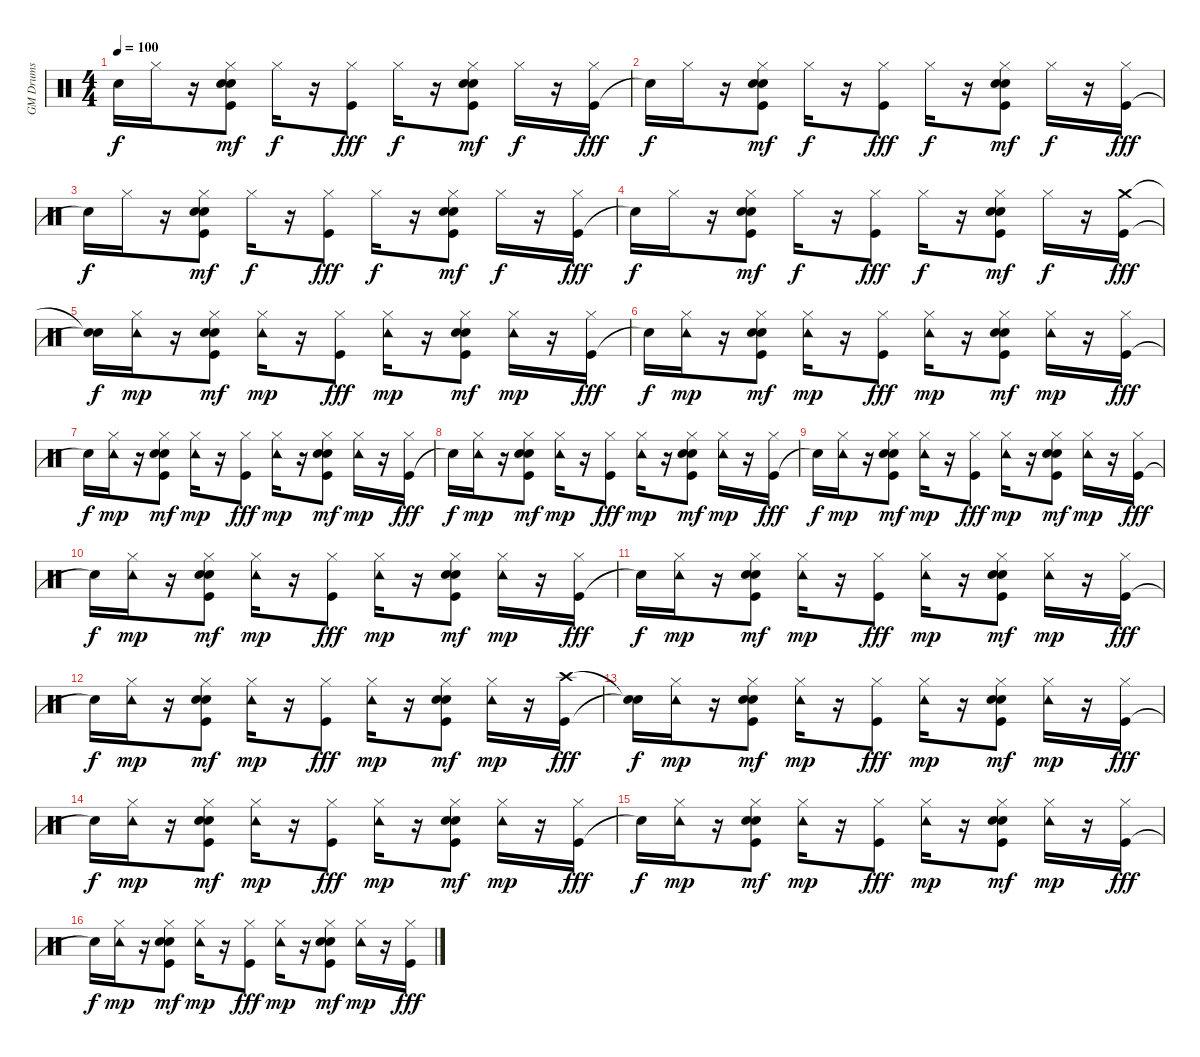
\track ("GM Drums" "GM Drums") {instrument percussion}
\staff {score}
\articulation defaults
\ts (4 4)
\tempo 100
\clef neutral
\ks c "Snare (hit)"{t}.16{dy f} "Hi-Hat (closed)".16
r.16 ("Kick (hit)" "Snare (hit) 2" "Hand Clap (hit)" "Hi-Hat (closed)").8{dy mf} "Hi-Hat (closed)".16{dy f} r.16 ("Kick (hit)" "Hi-Hat (closed)").8{dy fff} "Hi-Hat (closed)".16{dy f} r.16 ("Kick (hit)" "Snare (hit) 2" "Hand Clap (hit)" "Hi-Hat (closed)").8{dy mf} "Hi-Hat (closed)".16{dy f} r.16 ("Kick (hit)" "Hi-Hat (closed)").16{dy fff} |
"Snare (hit)"{t}.16{dy f} "Hi-Hat (closed)".16 r.16 ("Kick (hit)" "Snare (hit) 2" "Hand Clap (hit)" "Hi-Hat (closed)").8{dy mf} "Hi-Hat (closed)".16{dy f} r.16 ("Kick (hit)" "Hi-Hat (closed)").8{dy fff} "Hi-Hat (closed)".16{dy f} r.16 ("Kick (hit)" "Snare (hit) 2" "Hand Clap (hit)" "Hi-Hat (closed)").8{dy mf} "Hi-Hat (closed)".16{dy f} r.16 ("Kick (hit)" "Hi-Hat (closed)").16{dy fff} |
"Snare (hit)"{t}.16{dy f} "Hi-Hat (closed)".16 r.16 ("Kick (hit)" "Snare (hit) 2" "Hand Clap (hit)" "Hi-Hat (closed)").8{dy mf} "Hi-Hat (closed)".16{dy f} r.16 ("Kick (hit)" "Hi-Hat (closed)").8{dy fff} "Hi-Hat (closed)".16{dy f} r.16 ("Kick (hit)" "Snare (hit) 2" "Hand Clap (hit)" "Hi-Hat (closed)").8{dy mf} "Hi-Hat (closed)".16{dy f} r.16 ("Kick (hit)" "Hi-Hat (closed)").16{dy fff} |
"Snare (hit)"{t}.16{dy f} "Hi-Hat (closed)".16 r.16 ("Kick (hit)" "Snare (hit) 2" "Hand Clap (hit)" "Hi-Hat (closed)").8{dy mf} "Hi-Hat (closed)".16{dy f} r.16 ("Kick (hit)" "Hi-Hat (closed)").8{dy fff} "Hi-Hat (closed)".16{dy f} r.16 ("Kick (hit)" "Snare (hit) 2" "Hand Clap (hit)" "Hi-Hat (closed)").8{dy mf} "Hi-Hat (closed)".16{dy f} r.16 ("Kick (hit)" "Crash medium (hit)").16{dy fff} |
("Snare (hit)"{t} "Snare (hit)"{t}).16{dy f} ("Hi-Hat (closed)" "Tambourine (hit)").16{dy mp} r.16 ("Kick (hit)" "Snare (hit) 2" "Hand Clap (hit)" "Hi-Hat (closed)").8{dy mf} ("Hi-Hat (closed)" "Tambourine (hit)").16{dy mp} r.16 ("Kick (hit)" "Hi-Hat (closed)").8{dy fff} ("Hi-Hat (closed)" "Tambourine (hit)").16{dy mp} r.16 ("Kick (hit)" "Snare (hit) 2" "Hand Clap (hit)" "Hi-Hat (closed)").8{dy mf} ("Hi-Hat (closed)" "Tambourine (hit)").16{dy mp} r.16 ("Kick (hit)" "Hi-Hat (closed)").16{dy fff} |
"Snare (hit)"{t}.16{dy f} ("Hi-Hat (closed)" "Tambourine (hit)").16{dy mp} r.16 ("Kick (hit)" "Snare (hit) 2" "Hand Clap (hit)" "Hi-Hat (closed)").8{dy mf} ("Hi-Hat (closed)" "Tambourine (hit)").16{dy mp} r.16 ("Kick (hit)" "Hi-Hat (closed)").8{dy fff} ("Hi-Hat (closed)" "Tambourine (hit)").16{dy mp} r.16 ("Kick (hit)" "Snare (hit) 2" "Hand Clap (hit)" "Hi-Hat (closed)").8{dy mf} ("Hi-Hat (closed)" "Tambourine (hit)").16{dy mp} r.16 ("Kick (hit)" "Hi-Hat (closed)").16{dy fff} |
"Snare (hit)"{t}.16{dy f} ("Hi-Hat (closed)" "Tambourine (hit)").16{dy mp} r.16 ("Kick (hit)" "Snare (hit) 2" "Hand Clap (hit)" "Hi-Hat (closed)").8{dy mf} ("Hi-Hat (closed)" "Tambourine (hit)").16{dy mp} r.16 ("Kick (hit)" "Hi-Hat (closed)").8{dy fff} ("Hi-Hat (closed)" "Tambourine (hit)").16{dy mp} r.16 ("Kick (hit)" "Snare (hit) 2" "Hand Clap (hit)" "Hi-Hat (closed)").8{dy mf} ("Hi-Hat (closed)" "Tambourine (hit)").16{dy mp} r.16 ("Kick (hit)" "Hi-Hat (closed)").16{dy fff} |
"Snare (hit)"{t}.16{dy f} ("Hi-Hat (closed)" "Tambourine (hit)").16{dy mp} r.16 ("Kick (hit)" "Snare (hit) 2" "Hand Clap (hit)" "Hi-Hat (closed)").8{dy mf} ("Hi-Hat (closed)" "Tambourine (hit)").16{dy mp} r.16 ("Kick (hit)" "Hi-Hat (closed)").8{dy fff} ("Hi-Hat (closed)" "Tambourine (hit)").16{dy mp} r.16 ("Kick (hit)" "Snare (hit) 2" "Hand Clap (hit)" "Hi-Hat (closed)").8{dy mf} ("Hi-Hat (closed)" "Tambourine (hit)").16{dy mp} r.16 ("Kick (hit)" "Hi-Hat (closed)").16{dy fff} |
"Snare (hit)"{t}.16{dy f} ("Hi-Hat (closed)" "Tambourine (hit)").16{dy mp} r.16 ("Kick (hit)" "Snare (hit) 2" "Hand Clap (hit)" "Hi-Hat (closed)").8{dy mf} ("Hi-Hat (closed)" "Tambourine (hit)").16{dy mp} r.16 ("Kick (hit)" "Hi-Hat (closed)").8{dy fff} ("Hi-Hat (closed)" "Tambourine (hit)").16{dy mp} r.16 ("Kick (hit)" "Snare (hit) 2" "Hand Clap (hit)" "Hi-Hat (closed)").8{dy mf} ("Hi-Hat (closed)" "Tambourine (hit)").16{dy mp} r.16 ("Kick (hit)" "Hi-Hat (closed)").16{dy fff} |
"Snare (hit)"{t}.16{dy f} ("Hi-Hat (closed)" "Tambourine (hit)").16{dy mp} r.16 ("Kick (hit)" "Snare (hit) 2" "Hand Clap (hit)" "Hi-Hat (closed)").8{dy mf} ("Hi-Hat (closed)" "Tambourine (hit)").16{dy mp} r.16 ("Kick (hit)" "Hi-Hat (closed)").8{dy fff} ("Hi-Hat (closed)" "Tambourine (hit)").16{dy mp} r.16 ("Kick (hit)" "Snare (hit) 2" "Hand Clap (hit)" "Hi-Hat (closed)").8{dy mf} ("Hi-Hat (closed)" "Tambourine (hit)").16{dy mp} r.16 ("Kick (hit)" "Hi-Hat (closed)").16{dy fff} |
"Snare (hit)"{t}.16{dy f} ("Hi-Hat (closed)" "Tambourine (hit)").16{dy mp} r.16 ("Kick (hit)" "Snare (hit) 2" "Hand Clap (hit)" "Hi-Hat (closed)").8{dy mf} ("Hi-Hat (closed)" "Tambourine (hit)").16{dy mp} r.16 ("Kick (hit)" "Hi-Hat (closed)").8{dy fff} ("Hi-Hat (closed)" "Tambourine (hit)").16{dy mp} r.16 ("Kick (hit)" "Snare (hit) 2" "Hand Clap (hit)" "Hi-Hat (closed)").8{dy mf} ("Hi-Hat (closed)" "Tambourine (hit)").16{dy mp} r.16 ("Kick (hit)" "Hi-Hat (closed)").16{dy fff} |
"Snare (hit)"{t}.16{dy f} ("Hi-Hat (closed)" "Tambourine (hit)").16{dy mp} r.16 ("Kick (hit)" "Snare (hit) 2" "Hand Clap (hit)" "Hi-Hat (closed)").8{dy mf} ("Hi-Hat (closed)" "Tambourine (hit)").16{dy mp} r.16 ("Kick (hit)" "Hi-Hat (closed)").8{dy fff} ("Hi-Hat (closed)" "Tambourine (hit)").16{dy mp} r.16 ("Kick (hit)" "Snare (hit) 2" "Hand Clap (hit)" "Hi-Hat (closed)").8{dy mf} ("Hi-Hat (closed)" "Tambourine (hit)").16{dy mp} r.16 ("Kick (hit)" "Crash high (hit)").16{dy fff} |
("Snare (hit)"{t} "Snare (hit)"{t}).16{dy f} ("Hi-Hat (closed)" "Tambourine (hit)").16{dy mp} r.16 ("Kick (hit)" "Snare (hit) 2" "Hand Clap (hit)" "Hi-Hat (closed)").8{dy mf} ("Hi-Hat (closed)" "Tambourine (hit)").16{dy mp} r.16 ("Kick (hit)" "Hi-Hat (closed)").8{dy fff} ("Hi-Hat (closed)" "Tambourine (hit)").16{dy mp} r.16 ("Kick (hit)" "Snare (hit) 2" "Hand Clap (hit)" "Hi-Hat (closed)").8{dy mf} ("Hi-Hat (closed)" "Tambourine (hit)").16{dy mp} r.16 ("Kick (hit)" "Hi-Hat (closed)").16{dy fff} |
"Snare (hit)"{t}.16{dy f} ("Hi-Hat (closed)" "Tambourine (hit)").16{dy mp} r.16 ("Kick (hit)" "Snare (hit) 2" "Hand Clap (hit)" "Hi-Hat (closed)").8{dy mf} ("Hi-Hat (closed)" "Tambourine (hit)").16{dy mp} r.16 ("Kick (hit)" "Hi-Hat (closed)").8{dy fff} ("Hi-Hat (closed)" "Tambourine (hit)").16{dy mp} r.16 ("Kick (hit)" "Snare (hit) 2" "Hand Clap (hit)" "Hi-Hat (closed)").8{dy mf} ("Hi-Hat (closed)" "Tambourine (hit)").16{dy mp} r.16 ("Kick (hit)" "Hi-Hat (closed)").16{dy fff} |
"Snare (hit)"{t}.16{dy f} ("Hi-Hat (closed)" "Tambourine (hit)").16{dy mp} r.16 ("Kick (hit)" "Snare (hit) 2" "Hand Clap (hit)" "Hi-Hat (closed)").8{dy mf} ("Hi-Hat (closed)" "Tambourine (hit)").16{dy mp} r.16 ("Kick (hit)" "Hi-Hat (closed)").8{dy fff} ("Hi-Hat (closed)" "Tambourine (hit)").16{dy mp} r.16 ("Kick (hit)" "Snare (hit) 2" "Hand Clap (hit)" "Hi-Hat (closed)").8{dy mf} ("Hi-Hat (closed)" "Tambourine (hit)").16{dy mp} r.16 ("Kick (hit)" "Hi-Hat (closed)").16{dy fff} |
"Snare (hit)"{t}.16{dy f} ("Hi-Hat (closed)" "Tambourine (hit)").16{dy mp} r.16 ("Kick (hit)" "Snare (hit) 2" "Hand Clap (hit)" "Hi-Hat (closed)").8{dy mf} ("Hi-Hat (closed)" "Tambourine (hit)").16{dy mp} r.16 ("Kick (hit)" "Hi-Hat (closed)").8{dy fff} ("Hi-Hat (closed)" "Tambourine (hit)").16{dy mp} r.16 ("Kick (hit)" "Snare (hit) 2" "Hand Clap (hit)" "Hi-Hat (closed)").8{dy mf} ("Hi-Hat (closed)" "Tambourine (hit)").16{dy mp} r.16 ("Kick (hit)" "Hi-Hat (closed)").16{dy fff}
